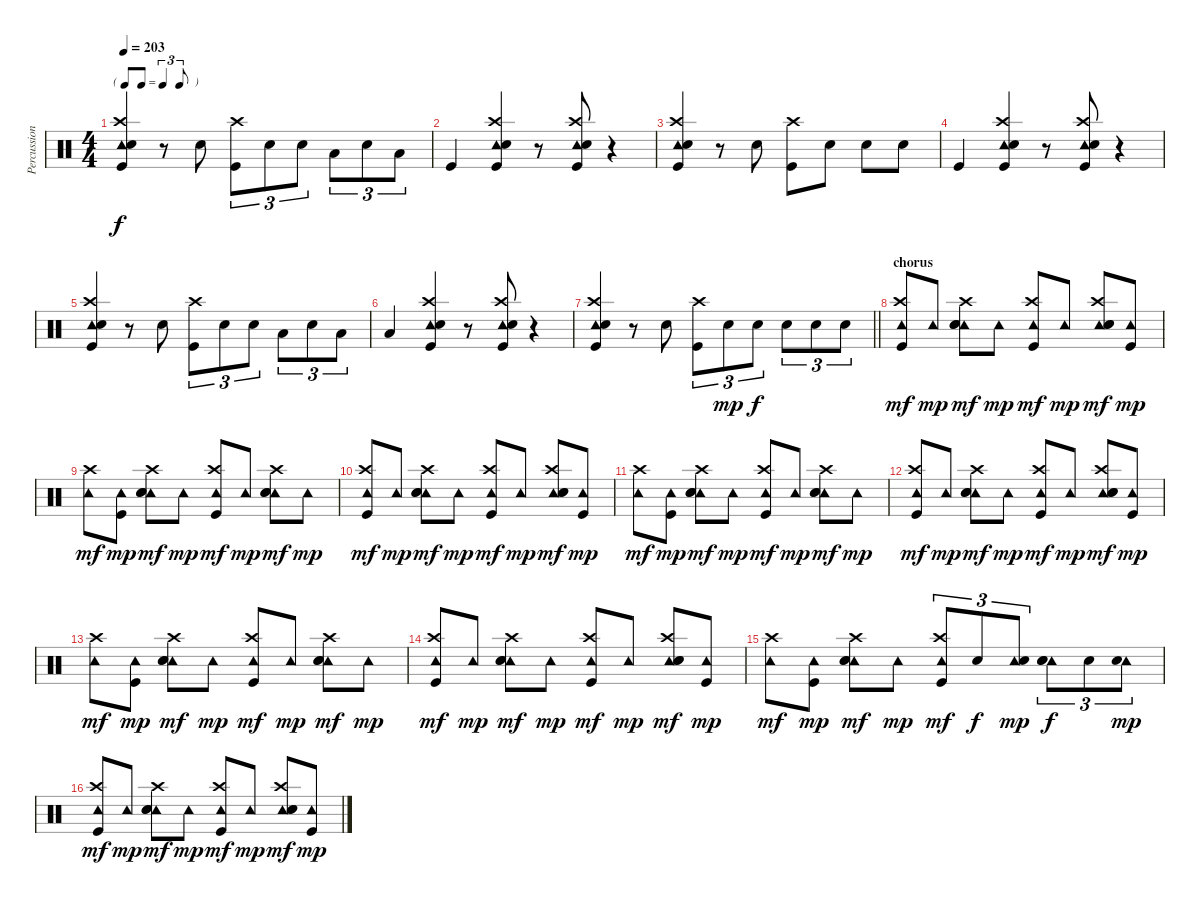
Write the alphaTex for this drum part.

\track ("Percussion" "Percussion") {instrument percussion}
\staff {score}
\articulation defaults
\ts (4 4)
\tf triplet8th
\tempo 203
\clef neutral
\ks c
("Tambourine (hit)" "Crash high (hit)" "Snare (hit) 2" "Kick (hit)").4{dy f} r.8 "Snare (hit) 2".8 ("Crash high (hit)" "Kick (hit)").8{tu (3 2)} "Snare (hit) 2".8{tu (3 2)} "Snare (hit) 2".8{tu (3 2)} "Low Tom (hit)".8{tu (3 2)} "Snare (hit) 2".8{tu (3 2)} "Low Tom (hit)".8{tu (3 2)} |
"Kick (hit)".4 ("Tambourine (hit)" "Crash high (hit)" "Snare (hit) 2" "Kick (hit)").4 r.8 ("Tambourine (hit)" "Crash high (hit)" "Snare (hit) 2" "Kick (hit)").8 r.4 |
("Tambourine (hit)" "Crash high (hit)" "Snare (hit) 2" "Kick (hit)").4 r.8 "Snare (hit) 2".8 ("Crash high (hit)" "Kick (hit)").8 "Snare (hit) 2".8 "Snare (hit) 2".8 "Snare (hit) 2".8 |
"Kick (hit)".4 ("Tambourine (hit)" "Crash high (hit)" "Snare (hit) 2" "Kick (hit)").4 r.8 ("Tambourine (hit)" "Crash high (hit)" "Snare (hit) 2" "Kick (hit)").8 r.4 |
("Tambourine (hit)" "Crash high (hit)" "Snare (hit) 2" "Kick (hit)").4 r.8 "Snare (hit) 2".8 ("Crash high (hit)" "Kick (hit)").8{tu (3 2)} "Snare (hit) 2".8{tu (3 2)} "Snare (hit) 2".8{tu (3 2)} "Low Tom (hit)".8{tu (3 2)} "Snare (hit) 2".8{tu (3 2)} "Low Tom (hit)".8{tu (3 2)} |
"Low Floor Tom (hit)".4 ("Tambourine (hit)" "Crash high (hit)" "Snare (hit) 2" "Kick (hit)").4 r.8 ("Tambourine (hit)" "Crash high (hit)" "Snare (hit) 2" "Kick (hit)").8 r.4 |
\barLineRight lightlight
("Tambourine (hit)" "Crash high (hit)" "Snare (hit) 2" "Kick (hit)").4 r.8 "Snare (hit) 2".8 ("Crash high (hit)" "Kick (hit)").8{tu (3 2)} "Snare (hit) 2".8{tu (3 2) dy mp} "Snare (hit) 2".8{tu (3 2) dy f} "Snare (hit) 2".8{tu (3 2)} "Snare (hit) 2".8{tu (3 2)} "Snare (hit) 2".8{tu (3 2)} |
\section ("" "chorus")
("Tambourine (hit)" "Crash high (hit)" "Kick (hit)").8{dy mf} "Tambourine (hit)".8{dy mp} ("Tambourine (hit)" "Crash high (hit)" "Hand Clap (hit)" "Snare (hit) 2").8{dy mf} "Tambourine (hit)".8{dy mp} ("Tambourine (hit)" "Crash high (hit)" "Kick (hit)").8{dy mf} "Tambourine (hit)".8{dy mp} ("Tambourine (hit)" "Crash high (hit)" "Hand Clap (hit)" "Snare (hit) 2").8{dy mf} ("Tambourine (hit)" "Kick (hit)").8{dy mp} |
("Tambourine (hit)" "Crash high (hit)").8{dy mf} ("Tambourine (hit)" "Kick (hit)").8{dy mp} ("Tambourine (hit)" "Crash high (hit)" "Hand Clap (hit)" "Snare (hit) 2").8{dy mf} "Tambourine (hit)".8{dy mp} ("Tambourine (hit)" "Crash high (hit)" "Kick (hit)").8{dy mf} "Tambourine (hit)".8{dy mp} ("Tambourine (hit)" "Crash high (hit)" "Hand Clap (hit)" "Snare (hit) 2").8{dy mf} "Tambourine (hit)".8{dy mp} |
("Tambourine (hit)" "Crash high (hit)" "Kick (hit)").8{dy mf} "Tambourine (hit)".8{dy mp} ("Tambourine (hit)" "Crash high (hit)" "Hand Clap (hit)" "Snare (hit) 2").8{dy mf} "Tambourine (hit)".8{dy mp} ("Tambourine (hit)" "Crash high (hit)" "Kick (hit)").8{dy mf} "Tambourine (hit)".8{dy mp} ("Tambourine (hit)" "Crash high (hit)" "Hand Clap (hit)" "Snare (hit) 2").8{dy mf} ("Tambourine (hit)" "Kick (hit)").8{dy mp} |
("Tambourine (hit)" "Crash high (hit)").8{dy mf} ("Tambourine (hit)" "Kick (hit)").8{dy mp} ("Tambourine (hit)" "Crash high (hit)" "Hand Clap (hit)" "Snare (hit) 2").8{dy mf} "Tambourine (hit)".8{dy mp} ("Tambourine (hit)" "Crash high (hit)" "Kick (hit)").8{dy mf} "Tambourine (hit)".8{dy mp} ("Tambourine (hit)" "Crash high (hit)" "Hand Clap (hit)" "Snare (hit) 2").8{dy mf} "Tambourine (hit)".8{dy mp} |
("Tambourine (hit)" "Crash high (hit)" "Kick (hit)").8{dy mf} "Tambourine (hit)".8{dy mp} ("Tambourine (hit)" "Crash high (hit)" "Hand Clap (hit)" "Snare (hit) 2").8{dy mf} "Tambourine (hit)".8{dy mp} ("Tambourine (hit)" "Crash high (hit)" "Kick (hit)").8{dy mf} "Tambourine (hit)".8{dy mp} ("Tambourine (hit)" "Crash high (hit)" "Hand Clap (hit)" "Snare (hit) 2").8{dy mf} ("Tambourine (hit)" "Kick (hit)").8{dy mp} |
("Tambourine (hit)" "Crash high (hit)").8{dy mf} ("Tambourine (hit)" "Kick (hit)").8{dy mp} ("Tambourine (hit)" "Crash high (hit)" "Hand Clap (hit)" "Snare (hit) 2").8{dy mf} "Tambourine (hit)".8{dy mp} ("Tambourine (hit)" "Crash high (hit)" "Kick (hit)").8{dy mf} "Tambourine (hit)".8{dy mp} ("Tambourine (hit)" "Crash high (hit)" "Hand Clap (hit)" "Snare (hit) 2").8{dy mf} "Tambourine (hit)".8{dy mp} |
("Tambourine (hit)" "Crash high (hit)" "Kick (hit)").8{dy mf} "Tambourine (hit)".8{dy mp} ("Tambourine (hit)" "Crash high (hit)" "Hand Clap (hit)" "Snare (hit) 2").8{dy mf} "Tambourine (hit)".8{dy mp} ("Tambourine (hit)" "Crash high (hit)" "Kick (hit)").8{dy mf} "Tambourine (hit)".8{dy mp} ("Tambourine (hit)" "Crash high (hit)" "Hand Clap (hit)" "Snare (hit) 2").8{dy mf} ("Tambourine (hit)" "Kick (hit)").8{dy mp} |
("Tambourine (hit)" "Crash high (hit)").8{dy mf} ("Tambourine (hit)" "Kick (hit)").8{dy mp} ("Tambourine (hit)" "Crash high (hit)" "Hand Clap (hit)" "Snare (hit) 2").8{dy mf} "Tambourine (hit)".8{dy mp} ("Tambourine (hit)" "Crash high (hit)" "Kick (hit)").8{tu (3 2) dy mf} "Snare (hit) 2".8{tu (3 2) dy f} ("Tambourine (hit)" "Snare (hit) 2").8{tu (3 2) dy mp} ("Tambourine (hit)" "Hand Clap (hit)" "Snare (hit) 2").8{tu (3 2) dy f} "Snare (hit) 2".8{tu (3 2)} ("Tambourine (hit)" "Snare (hit) 2").8{tu (3 2) dy mp} |
("Tambourine (hit)" "Crash high (hit)" "Kick (hit)").8{dy mf} "Tambourine (hit)".8{dy mp} ("Tambourine (hit)" "Crash high (hit)" "Hand Clap (hit)" "Snare (hit) 2").8{dy mf} "Tambourine (hit)".8{dy mp} ("Tambourine (hit)" "Crash high (hit)" "Kick (hit)").8{dy mf} "Tambourine (hit)".8{dy mp} ("Tambourine (hit)" "Crash high (hit)" "Hand Clap (hit)" "Snare (hit) 2").8{dy mf} ("Tambourine (hit)" "Kick (hit)").8{dy mp}
